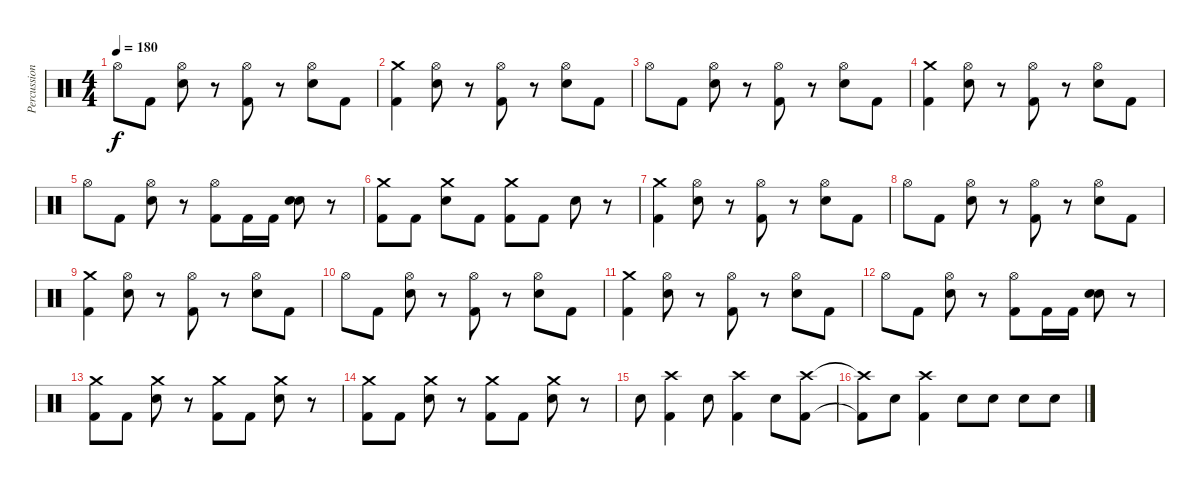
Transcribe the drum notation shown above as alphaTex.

\track ("Percussion" "Percussion") {instrument percussion}
\staff {score}
\articulation defaults
\ts (4 4)
\tempo 180
\clef neutral
\ks c "Hi-Hat (open)".8{dy f} "Kick (hit) 2".8
("Hi-Hat (open)" "Snare (hit) 2").8 r.8 ("Hi-Hat (open)" "Kick (hit) 2").8 r.8 ("Hi-Hat (open)" "Snare (hit) 2").8 "Kick (hit) 2".8 |
("Crash medium (hit)" "Kick (hit) 2").4 ("Hi-Hat (open)" "Snare (hit) 2").8 r.8 ("Hi-Hat (open)" "Kick (hit) 2").8 r.8 ("Hi-Hat (open)" "Snare (hit) 2").8 "Kick (hit) 2".8 |
"Hi-Hat (open)".8 "Kick (hit) 2".8 ("Hi-Hat (open)" "Snare (hit) 2").8 r.8 ("Hi-Hat (open)" "Kick (hit) 2").8 r.8 ("Hi-Hat (open)" "Snare (hit) 2").8 "Kick (hit) 2".8 |
("Crash medium (hit)" "Kick (hit) 2").4 ("Hi-Hat (open)" "Snare (hit) 2").8 r.8 ("Hi-Hat (open)" "Kick (hit) 2").8 r.8 ("Hi-Hat (open)" "Snare (hit) 2").8 "Kick (hit) 2".8 |
"Hi-Hat (open)".8 "Kick (hit) 2".8 ("Hi-Hat (open)" "Snare (hit) 2").8 r.8 ("Hi-Hat (open)" "Kick (hit) 2").8 "Kick (hit) 2".16 "Kick (hit) 2".16 ("Snare (hit) 2" "Snare (hit) 2").8 r.8 |
("Crash medium (hit)" "Kick (hit) 2").8 "Kick (hit) 2".8 ("Crash medium (hit)" "Snare (hit) 2").8 "Kick (hit) 2".8 ("Crash medium (hit)" "Kick (hit) 2").8 "Kick (hit) 2".8 "Snare (hit) 2".8 r.8 |
("Crash medium (hit)" "Kick (hit) 2").4 ("Hi-Hat (open)" "Snare (hit) 2").8 r.8 ("Hi-Hat (open)" "Kick (hit) 2").8 r.8 ("Hi-Hat (open)" "Snare (hit) 2").8 "Kick (hit) 2".8 |
"Hi-Hat (open)".8 "Kick (hit) 2".8 ("Hi-Hat (open)" "Snare (hit) 2").8 r.8 ("Hi-Hat (open)" "Kick (hit) 2").8 r.8 ("Hi-Hat (open)" "Snare (hit) 2").8 "Kick (hit) 2".8 |
("Crash medium (hit)" "Kick (hit) 2").4 ("Hi-Hat (open)" "Snare (hit) 2").8 r.8 ("Hi-Hat (open)" "Kick (hit) 2").8 r.8 ("Hi-Hat (open)" "Snare (hit) 2").8 "Kick (hit) 2".8 |
"Hi-Hat (open)".8 "Kick (hit) 2".8 ("Hi-Hat (open)" "Snare (hit) 2").8 r.8 ("Hi-Hat (open)" "Kick (hit) 2").8 r.8 ("Hi-Hat (open)" "Snare (hit) 2").8 "Kick (hit) 2".8 |
("Crash medium (hit)" "Kick (hit) 2").4 ("Hi-Hat (open)" "Snare (hit) 2").8 r.8 ("Hi-Hat (open)" "Kick (hit) 2").8 r.8 ("Hi-Hat (open)" "Snare (hit) 2").8 "Kick (hit) 2".8 |
"Hi-Hat (open)".8 "Kick (hit) 2".8 ("Hi-Hat (open)" "Snare (hit) 2").8 r.8 ("Hi-Hat (open)" "Kick (hit) 2").8 "Kick (hit) 2".16 "Kick (hit) 2".16 ("Snare (hit) 2" "Snare (hit) 2").8 r.8 |
("Crash medium (hit)" "Kick (hit) 2").8 "Kick (hit) 2".8 ("Crash medium (hit)" "Snare (hit) 2").8 r.8 ("Crash medium (hit)" "Kick (hit) 2").8 "Kick (hit) 2".8 ("Crash medium (hit)" "Snare (hit) 2").8 r.8 |
("Crash medium (hit)" "Kick (hit) 2").8 "Kick (hit) 2".8 ("Crash medium (hit)" "Snare (hit) 2").8 r.8 ("Crash medium (hit)" "Kick (hit) 2").8 "Kick (hit) 2".8 ("Crash medium (hit)" "Snare (hit) 2").8 r.8 |
"Snare (hit) 2".8 ("Crash high (hit)" "Kick (hit) 2").4 "Snare (hit) 2".8 ("Crash high (hit)" "Kick (hit) 2").4 "Snare (hit) 2".8 ("Crash high (hit)" "Kick (hit) 2").8 |
("Crash high (hit)"{t} "Kick (hit) 2"{t}).8 "Snare (hit) 2".8 ("Crash high (hit)" "Kick (hit) 2").4 "Snare (hit) 2".8 "Snare (hit) 2".8 "Snare (hit) 2".8 "Snare (hit) 2".8
